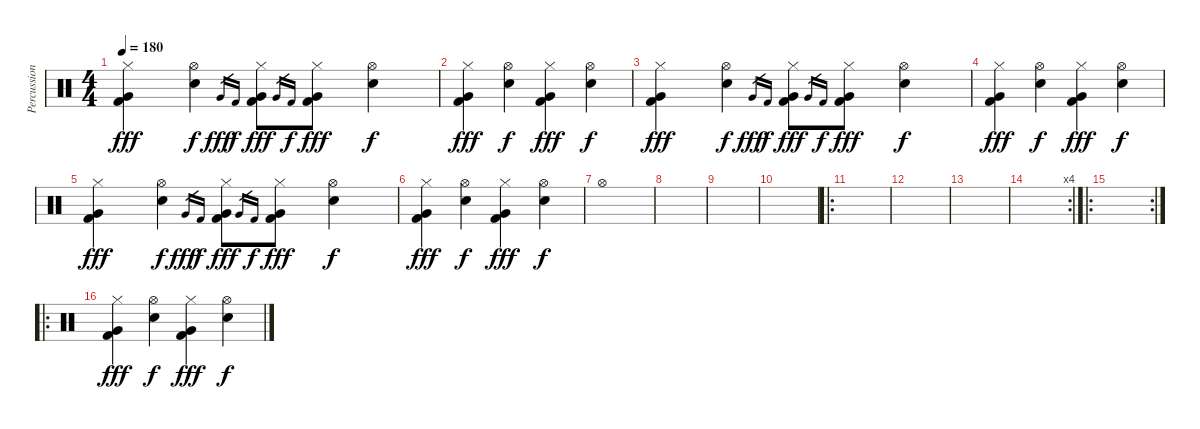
\track ("Percussion" "Percussion") {instrument percussion}
\staff {score}
\articulation defaults
\ts (4 4)
\tempo 180
\clef neutral
\ks c
("Hi-Hat (closed)" "Very Low Tom (hit)" "Kick (hit) 2").4{dy fff} ("Hi-Hat (open)" "Electric Snare (hit)").4{dy f} "Very Low Tom (hit)".16{gr dy fff} "Kick (hit) 2".16{gr dy f} ("Hi-Hat (closed)" "Very Low Tom (hit)" "Kick (hit) 2").8{dy fff} "Very Low Tom (hit)".16{gr} "Kick (hit) 2".16{gr dy f} ("Hi-Hat (closed)" "Very Low Tom (hit)" "Kick (hit) 2").8{dy fff} ("Hi-Hat (open)" "Electric Snare (hit)").4{dy f} |
("Hi-Hat (closed)" "Very Low Tom (hit)" "Kick (hit) 2").4{dy fff} ("Hi-Hat (open)" "Electric Snare (hit)").4{dy f} ("Hi-Hat (closed)" "Very Low Tom (hit)" "Kick (hit) 2").4{dy fff} ("Hi-Hat (open)" "Electric Snare (hit)").4{dy f} |
("Hi-Hat (closed)" "Very Low Tom (hit)" "Kick (hit) 2").4{dy fff} ("Hi-Hat (open)" "Electric Snare (hit)").4{dy f} "Very Low Tom (hit)".16{gr dy fff} "Kick (hit) 2".16{gr dy f} ("Hi-Hat (closed)" "Very Low Tom (hit)" "Kick (hit) 2").8{dy fff} "Very Low Tom (hit)".16{gr} "Kick (hit) 2".16{gr dy f} ("Hi-Hat (closed)" "Very Low Tom (hit)" "Kick (hit) 2").8{dy fff} ("Hi-Hat (open)" "Electric Snare (hit)").4{dy f} |
("Hi-Hat (closed)" "Very Low Tom (hit)" "Kick (hit) 2").4{dy fff} ("Hi-Hat (open)" "Electric Snare (hit)").4{dy f} ("Hi-Hat (closed)" "Very Low Tom (hit)" "Kick (hit) 2").4{dy fff} ("Hi-Hat (open)" "Electric Snare (hit)").4{dy f} |
("Hi-Hat (closed)" "Very Low Tom (hit)" "Kick (hit) 2").4{dy fff} ("Hi-Hat (open)" "Electric Snare (hit)").4{dy f} "Very Low Tom (hit)".16{gr dy fff} "Kick (hit) 2".16{gr dy f} ("Hi-Hat (closed)" "Very Low Tom (hit)" "Kick (hit) 2").8{dy fff} "Very Low Tom (hit)".16{gr} "Kick (hit) 2".16{gr dy f} ("Hi-Hat (closed)" "Very Low Tom (hit)" "Kick (hit) 2").8{dy fff} ("Hi-Hat (open)" "Electric Snare (hit)").4{dy f} |
("Hi-Hat (closed)" "Very Low Tom (hit)" "Kick (hit) 2").4{dy fff} ("Hi-Hat (open)" "Electric Snare (hit)").4{dy f} ("Hi-Hat (closed)" "Very Low Tom (hit)" "Kick (hit) 2").4{dy fff} ("Hi-Hat (open)" "Electric Snare (hit)").4{dy f} |
"Hi-Hat (open)".1 |
|
|
|
\ro
|
|
|
\rc 4
|
\ro
\rc 2
|
\ro
("Hi-Hat (closed)" "Very Low Tom (hit)" "Kick (hit) 2").4{dy fff} ("Hi-Hat (open)" "Electric Snare (hit)").4{dy f} ("Hi-Hat (closed)" "Very Low Tom (hit)" "Kick (hit) 2").4{dy fff} ("Hi-Hat (open)" "Electric Snare (hit)").4{dy f}
